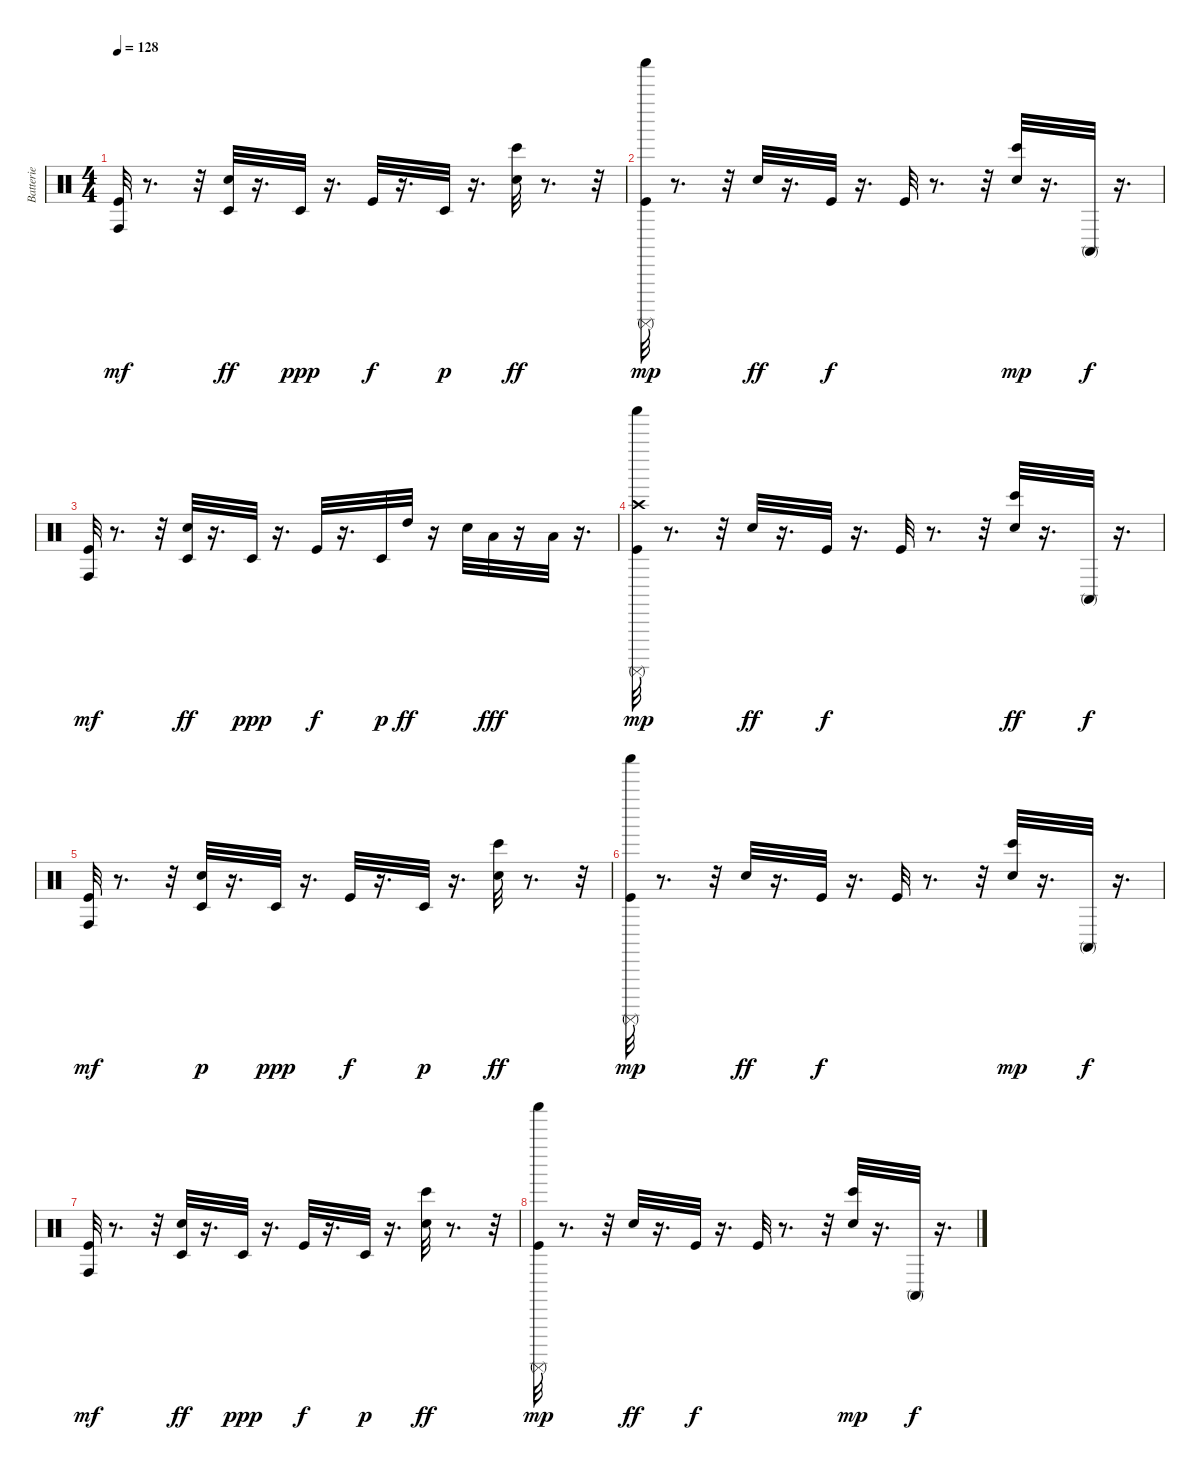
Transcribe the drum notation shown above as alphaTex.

\track ("Batterie" "Batterie") {instrument percussion}
\staff {score}
\articulation defaults
\ts (4 4)
\tempo 128
\clef neutral
\ks c
("Conga high (hit)" "Kick (hit)").32{dy mf} r.8{d} r.32 ("Timbale low (hit)" "Electric Snare (hit)").32{dy ff} r.16{d} "Timbale low (hit)".32{dy ppp} r.16{d} "Kick (hit)".32{dy f} r.16{d} "Timbale low (hit)".32{dy p} r.16{d} ("Bongo High (hit)" "Electric Snare (hit)").32{dy ff} r.8{d} r.32 |
("Kick (hit)" "Surdo (mute)" "Shaker (hit)").32{dy mp} r.8{d} r.32 "Electric Snare (hit)".32{dy ff} r.16{d} "Kick (hit)".32{dy f} r.16{d} "Kick (hit)".32 r.8{d} r.32 ("Electric Snare (hit)" "Bongo High (hit)").32{dy mp} r.16{d} "Conga high (mute)".32{dy f} r.16{d} |
("Kick (hit)" "Conga high (hit)").32{dy mf} r.8{d} r.32 ("Timbale low (hit)" "Electric Snare (hit)").32{dy ff} r.16{d} "Timbale low (hit)".32{dy ppp} r.16{d} "Kick (hit)".32{dy f} r.16{d} "Timbale low (hit)".32{dy p} "High Tom (hit)".32{dy ff} r.16 "Electric Snare (hit)".32 "Low Tom (hit)".32{dy fff} r.16 "Low Floor Tom (hit)".32 r.16{d} |
("Surdo (mute)" "Shaker (hit)" "Crash high (hit)" "Kick (hit)").32{dy mp} r.8{d} r.32 "Electric Snare (hit)".32{dy ff} r.16{d} "Kick (hit)".32{dy f} r.16{d} "Kick (hit)".32 r.8{d} r.32 ("Bongo High (hit)" "Electric Snare (hit)").32{dy ff} r.16{d} "Conga high (mute)".32{dy f} r.16{d} |
("Conga high (hit)" "Kick (hit)").32{dy mf} r.8{d} r.32 ("Electric Snare (hit)" "Timbale low (hit)").32{dy p} r.16{d} "Timbale low (hit)".32{dy ppp} r.16{d} "Kick (hit)".32{dy f} r.16{d} "Timbale low (hit)".32{dy p} r.16{d} ("Bongo High (hit)" "Electric Snare (hit)").32{dy ff} r.8{d} r.32 |
("Kick (hit)" "Surdo (mute)" "Shaker (hit)").32{dy mp} r.8{d} r.32 "Electric Snare (hit)".32{dy ff} r.16{d} "Kick (hit)".32{dy f} r.16{d} "Kick (hit)".32 r.8{d} r.32 ("Electric Snare (hit)" "Bongo High (hit)").32{dy mp} r.16{d} "Conga high (mute)".32{dy f} r.16{d} |
("Kick (hit)" "Conga high (hit)").32{dy mf} r.8{d} r.32 ("Timbale low (hit)" "Electric Snare (hit)").32{dy ff} r.16{d} "Timbale low (hit)".32{dy ppp} r.16{d} "Kick (hit)".32{dy f} r.16{d} "Timbale low (hit)".32{dy p} r.16{d} ("Bongo High (hit)" "Electric Snare (hit)").32{dy ff} r.8{d} r.32 |
("Shaker (hit)" "Surdo (mute)" "Kick (hit)").32{dy mp} r.8{d} r.32 "Electric Snare (hit)".32{dy ff} r.16{d} "Kick (hit)".32{dy f} r.16{d} "Kick (hit)".32 r.8{d} r.32 ("Electric Snare (hit)" "Bongo High (hit)").32{dy mp} r.16{d} "Conga high (mute)".32{dy f} r.16{d}
